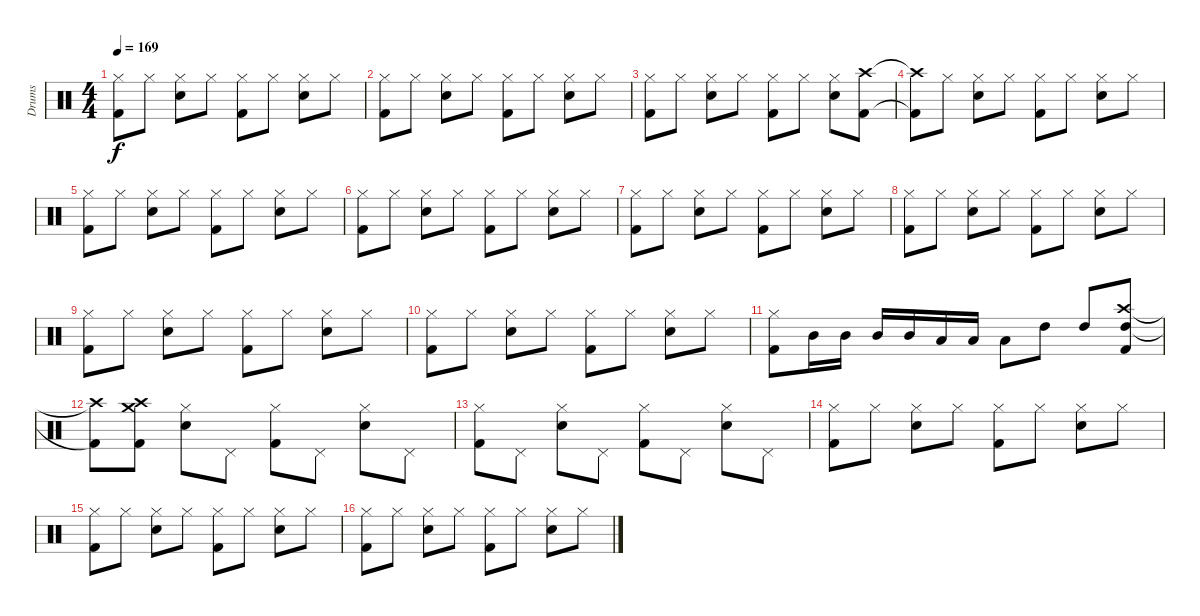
\track ("Drums" "Drums") {instrument percussion}
\staff {score}
\articulation defaults
\ts (4 4)
\tempo 169
\clef neutral
\ks c
("Hi-Hat (closed)" "Kick (hit) 2").8{dy f} "Hi-Hat (closed)".8 ("Hi-Hat (closed)" "Snare (hit) 2").8 "Hi-Hat (closed)".8 ("Hi-Hat (closed)" "Kick (hit) 2").8 "Hi-Hat (closed)".8 ("Hi-Hat (closed)" "Snare (hit) 2").8 "Hi-Hat (closed)".8 |
("Hi-Hat (closed)" "Kick (hit) 2").8 "Hi-Hat (closed)".8 ("Hi-Hat (closed)" "Snare (hit) 2").8 "Hi-Hat (closed)".8 ("Hi-Hat (closed)" "Kick (hit) 2").8 "Hi-Hat (closed)".8 ("Hi-Hat (closed)" "Snare (hit) 2").8 "Hi-Hat (closed)".8 |
("Hi-Hat (closed)" "Kick (hit) 2").8 "Hi-Hat (closed)".8 ("Hi-Hat (closed)" "Snare (hit) 2").8 "Hi-Hat (closed)".8 ("Hi-Hat (closed)" "Kick (hit) 2").8 "Hi-Hat (closed)".8 ("Hi-Hat (closed)" "Snare (hit) 2").8 ("Crash high (hit)" "Kick (hit) 2").8 |
("Crash high (hit)"{t} "Kick (hit) 2"{t}).8 "Hi-Hat (closed)".8 ("Hi-Hat (closed)" "Snare (hit) 2").8 "Hi-Hat (closed)".8 ("Hi-Hat (closed)" "Kick (hit) 2").8 "Hi-Hat (closed)".8 ("Hi-Hat (closed)" "Snare (hit) 2").8 "Hi-Hat (closed)".8 |
("Hi-Hat (closed)" "Kick (hit) 2").8 "Hi-Hat (closed)".8 ("Hi-Hat (closed)" "Snare (hit) 2").8 "Hi-Hat (closed)".8 ("Hi-Hat (closed)" "Kick (hit) 2").8 "Hi-Hat (closed)".8 ("Hi-Hat (closed)" "Snare (hit) 2").8 "Hi-Hat (closed)".8 |
("Hi-Hat (closed)" "Kick (hit) 2").8 "Hi-Hat (closed)".8 ("Hi-Hat (closed)" "Snare (hit) 2").8 "Hi-Hat (closed)".8 ("Hi-Hat (closed)" "Kick (hit) 2").8 "Hi-Hat (closed)".8 ("Hi-Hat (closed)" "Snare (hit) 2").8 "Hi-Hat (closed)".8 |
("Hi-Hat (closed)" "Kick (hit) 2").8 "Hi-Hat (closed)".8 ("Hi-Hat (closed)" "Snare (hit) 2").8 "Hi-Hat (closed)".8 ("Hi-Hat (closed)" "Kick (hit) 2").8 "Hi-Hat (closed)".8 ("Hi-Hat (closed)" "Snare (hit) 2").8 "Hi-Hat (closed)".8 |
("Hi-Hat (closed)" "Kick (hit) 2").8 "Hi-Hat (closed)".8 ("Hi-Hat (closed)" "Snare (hit) 2").8 "Hi-Hat (closed)".8 ("Hi-Hat (closed)" "Kick (hit) 2").8 "Hi-Hat (closed)".8 ("Hi-Hat (closed)" "Snare (hit) 2").8 "Hi-Hat (closed)".8 |
("Hi-Hat (closed)" "Kick (hit) 2").8 "Hi-Hat (closed)".8 ("Hi-Hat (closed)" "Snare (hit) 2").8 "Hi-Hat (closed)".8 ("Hi-Hat (closed)" "Kick (hit) 2").8 "Hi-Hat (closed)".8 ("Hi-Hat (closed)" "Snare (hit) 2").8 "Hi-Hat (closed)".8 |
("Hi-Hat (closed)" "Kick (hit) 2").8 "Hi-Hat (closed)".8 ("Hi-Hat (closed)" "Snare (hit) 2").8 "Hi-Hat (closed)".8 ("Hi-Hat (closed)" "Kick (hit) 2").8 "Hi-Hat (closed)".8 ("Hi-Hat (closed)" "Snare (hit) 2").8 "Hi-Hat (closed)".8 |
("Hi-Hat (closed)" "Kick (hit) 2").8 "Mid Tom (hit)".16 "Mid Tom (hit)".16 "Mid Tom (hit)".16 "Mid Tom (hit)".16 "Low Tom (hit)".16 "Low Tom (hit)".16 "Low Tom (hit)".8 "High Tom (hit)".8 "High Tom (hit)".8 ("Crash high (hit)" "High Tom (hit)" "Kick (hit) 2").8 |
("Crash high (hit)"{t} "Kick (hit) 2"{t}).8 ("Crash high (hit)" "Crash medium (hit)" "Kick (hit) 2").8 ("Hi-Hat (closed)" "Snare (hit) 2").8 "Pedal Hi-Hat (hit)".8 ("Hi-Hat (closed)" "Kick (hit) 2").8 "Pedal Hi-Hat (hit)".8 ("Hi-Hat (closed)" "Snare (hit) 2").8 "Pedal Hi-Hat (hit)".8 |
("Hi-Hat (closed)" "Kick (hit) 2").8 "Pedal Hi-Hat (hit)".8 ("Hi-Hat (closed)" "Snare (hit) 2").8 "Pedal Hi-Hat (hit)".8 ("Hi-Hat (closed)" "Kick (hit) 2").8 "Pedal Hi-Hat (hit)".8 ("Hi-Hat (closed)" "Snare (hit) 2").8 "Pedal Hi-Hat (hit)".8 |
("Hi-Hat (closed)" "Kick (hit) 2").8 "Hi-Hat (closed)".8 ("Hi-Hat (closed)" "Snare (hit) 2").8 "Hi-Hat (closed)".8 ("Hi-Hat (closed)" "Kick (hit) 2").8 "Hi-Hat (closed)".8 ("Hi-Hat (closed)" "Snare (hit) 2").8 "Hi-Hat (closed)".8 |
("Hi-Hat (closed)" "Kick (hit) 2").8 "Hi-Hat (closed)".8 ("Hi-Hat (closed)" "Snare (hit) 2").8 "Hi-Hat (closed)".8 ("Hi-Hat (closed)" "Kick (hit) 2").8 "Hi-Hat (closed)".8 ("Hi-Hat (closed)" "Snare (hit) 2").8 "Hi-Hat (closed)".8 |
("Hi-Hat (closed)" "Kick (hit) 2").8 "Hi-Hat (closed)".8 ("Hi-Hat (closed)" "Snare (hit) 2").8 "Hi-Hat (closed)".8 ("Hi-Hat (closed)" "Kick (hit) 2").8 "Hi-Hat (closed)".8 ("Hi-Hat (closed)" "Snare (hit) 2").8 "Hi-Hat (closed)".8
